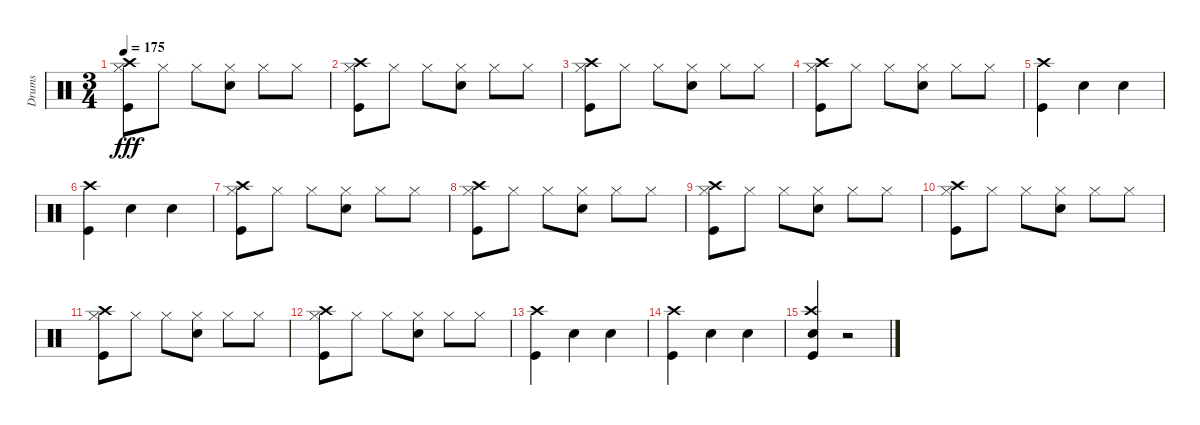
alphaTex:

\track ("Drums" "Drums") {instrument percussion}
\staff {score}
\articulation defaults
\ts (3 4)
\tempo 175
\clef neutral
\ks c
("Hi-Hat (closed)" "Kick (hit)" "Crash high (hit)").8{dy fff} "Hi-Hat (closed)".8 "Hi-Hat (closed)".8 ("Hi-Hat (closed)" "Snare (hit) 2").8 "Hi-Hat (closed)".8 "Hi-Hat (closed)".8 |
("Hi-Hat (closed)" "Kick (hit)" "Crash high (hit)").8 "Hi-Hat (closed)".8 "Hi-Hat (closed)".8 ("Hi-Hat (closed)" "Snare (hit) 2").8 "Hi-Hat (closed)".8 "Hi-Hat (closed)".8 |
("Hi-Hat (closed)" "Kick (hit)" "Crash high (hit)").8 "Hi-Hat (closed)".8 "Hi-Hat (closed)".8 ("Hi-Hat (closed)" "Snare (hit) 2").8 "Hi-Hat (closed)".8 "Hi-Hat (closed)".8 |
("Hi-Hat (closed)" "Kick (hit)" "Crash high (hit)").8 "Hi-Hat (closed)".8 "Hi-Hat (closed)".8 ("Hi-Hat (closed)" "Snare (hit) 2").8 "Hi-Hat (closed)".8 "Hi-Hat (closed)".8 |
("Crash high (hit)" "Kick (hit)").4 "Snare (hit) 2".4 "Snare (hit) 2".4 |
("Crash high (hit)" "Kick (hit)").4 "Snare (hit) 2".4 "Snare (hit) 2".4 |
("Hi-Hat (closed)" "Kick (hit)" "Crash high (hit)").8 "Hi-Hat (closed)".8 "Hi-Hat (closed)".8 ("Hi-Hat (closed)" "Snare (hit) 2").8 "Hi-Hat (closed)".8 "Hi-Hat (closed)".8 |
("Hi-Hat (closed)" "Kick (hit)" "Crash high (hit)").8 "Hi-Hat (closed)".8 "Hi-Hat (closed)".8 ("Hi-Hat (closed)" "Snare (hit) 2").8 "Hi-Hat (closed)".8 "Hi-Hat (closed)".8 |
("Hi-Hat (closed)" "Kick (hit)" "Crash high (hit)").8 "Hi-Hat (closed)".8 "Hi-Hat (closed)".8 ("Hi-Hat (closed)" "Snare (hit) 2").8 "Hi-Hat (closed)".8 "Hi-Hat (closed)".8 |
("Hi-Hat (closed)" "Kick (hit)" "Crash high (hit)").8 "Hi-Hat (closed)".8 "Hi-Hat (closed)".8 ("Hi-Hat (closed)" "Snare (hit) 2").8 "Hi-Hat (closed)".8 "Hi-Hat (closed)".8 |
("Hi-Hat (closed)" "Kick (hit)" "Crash high (hit)").8 "Hi-Hat (closed)".8 "Hi-Hat (closed)".8 ("Hi-Hat (closed)" "Snare (hit) 2").8 "Hi-Hat (closed)".8 "Hi-Hat (closed)".8 |
("Hi-Hat (closed)" "Kick (hit)" "Crash high (hit)").8 "Hi-Hat (closed)".8 "Hi-Hat (closed)".8 ("Hi-Hat (closed)" "Snare (hit) 2").8 "Hi-Hat (closed)".8 "Hi-Hat (closed)".8 |
("Crash high (hit)" "Kick (hit)").4 "Snare (hit) 2".4 "Snare (hit) 2".4 |
("Crash high (hit)" "Kick (hit)").4 "Snare (hit) 2".4 "Snare (hit) 2".4 |
("Crash high (hit)" "Snare (hit) 2" "Kick (hit)").4 r.2
